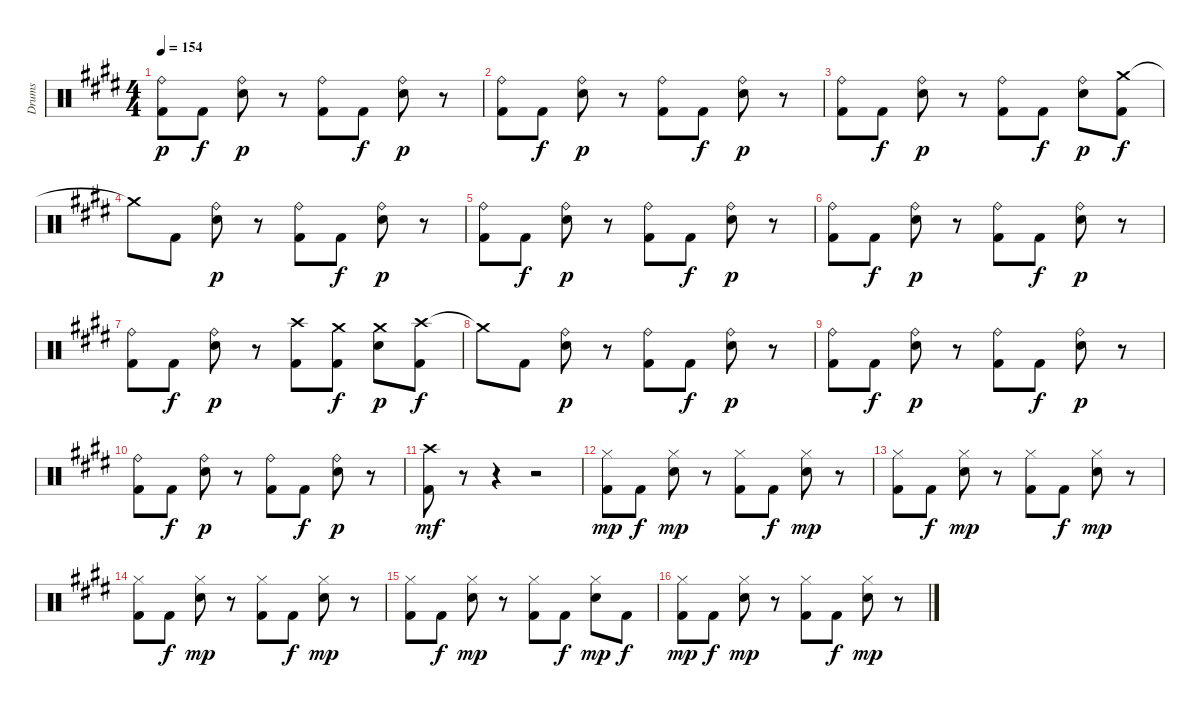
\track ("Drums" "Drums") {instrument percussion}
\staff {score}
\articulation defaults
\ts (4 4)
\tempo 154
\clef neutral
\ks e
("Ride (bell)" "Kick (hit) 2").8{dy p} "Kick (hit) 2".8{dy f} ("Ride (bell)" "Electric Snare (hit)").8{dy p} r.8 ("Ride (bell)" "Kick (hit) 2").8 "Kick (hit) 2".8{dy f} ("Ride (bell)" "Electric Snare (hit)").8{dy p} r.8 |
("Ride (bell)" "Kick (hit) 2").8 "Kick (hit) 2".8{dy f} ("Ride (bell)" "Electric Snare (hit)").8{dy p} r.8 ("Ride (bell)" "Kick (hit) 2").8 "Kick (hit) 2".8{dy f} ("Ride (bell)" "Electric Snare (hit)").8{dy p} r.8 |
("Ride (bell)" "Kick (hit) 2").8 "Kick (hit) 2".8{dy f} ("Ride (bell)" "Electric Snare (hit)").8{dy p} r.8 ("Ride (bell)" "Kick (hit) 2").8 "Kick (hit) 2".8{dy f} ("Ride (bell)" "Electric Snare (hit)").8{dy p} ("Crash medium (hit)" "Kick (hit) 2").8{dy f} |
"Crash medium (hit)"{t}.8 "Kick (hit) 2".8 ("Ride (bell)" "Electric Snare (hit)").8{dy p} r.8 ("Ride (bell)" "Kick (hit) 2").8 "Kick (hit) 2".8{dy f} ("Ride (bell)" "Electric Snare (hit)").8{dy p} r.8 |
("Ride (bell)" "Kick (hit) 2").8 "Kick (hit) 2".8{dy f} ("Ride (bell)" "Electric Snare (hit)").8{dy p} r.8 ("Ride (bell)" "Kick (hit) 2").8 "Kick (hit) 2".8{dy f} ("Ride (bell)" "Electric Snare (hit)").8{dy p} r.8 |
("Ride (bell)" "Kick (hit) 2").8 "Kick (hit) 2".8{dy f} ("Ride (bell)" "Electric Snare (hit)").8{dy p} r.8 ("Ride (bell)" "Kick (hit) 2").8 "Kick (hit) 2".8{dy f} ("Ride (bell)" "Electric Snare (hit)").8{dy p} r.8 |
("Ride (bell)" "Kick (hit) 2").8 "Kick (hit) 2".8{dy f} ("Ride (bell)" "Electric Snare (hit)").8{dy p} r.8 ("Crash high (hit)" "Kick (hit) 2").8 ("Crash medium (hit)" "Kick (hit) 2").8{dy f} ("Crash medium (hit)" "Electric Snare (hit)").8{dy p} ("Crash high (hit)" "Kick (hit) 2").8{dy f} |
"Crash medium (hit)"{t}.8 "Kick (hit) 2".8 ("Ride (bell)" "Electric Snare (hit)").8{dy p} r.8 ("Ride (bell)" "Kick (hit) 2").8 "Kick (hit) 2".8{dy f} ("Ride (bell)" "Electric Snare (hit)").8{dy p} r.8 |
("Ride (bell)" "Kick (hit) 2").8 "Kick (hit) 2".8{dy f} ("Ride (bell)" "Electric Snare (hit)").8{dy p} r.8 ("Ride (bell)" "Kick (hit) 2").8 "Kick (hit) 2".8{dy f} ("Ride (bell)" "Electric Snare (hit)").8{dy p} r.8 |
("Ride (bell)" "Kick (hit) 2").8 "Kick (hit) 2".8{dy f} ("Ride (bell)" "Electric Snare (hit)").8{dy p} r.8 ("Ride (bell)" "Kick (hit) 2").8 "Kick (hit) 2".8{dy f} ("Ride (bell)" "Electric Snare (hit)").8{dy p} r.8 |
("Crash high (hit)" "Kick (hit) 2").8{dy mf} r.8 r.4 r.2 |
("Hi-Hat (closed)" "Kick (hit) 2").8{dy mp} "Kick (hit) 2".8{dy f} ("Hi-Hat (closed)" "Electric Snare (hit)").8{dy mp} r.8 ("Hi-Hat (closed)" "Kick (hit) 2").8 "Kick (hit) 2".8{dy f} ("Hi-Hat (closed)" "Electric Snare (hit)").8{dy mp} r.8 |
("Hi-Hat (closed)" "Kick (hit) 2").8 "Kick (hit) 2".8{dy f} ("Hi-Hat (closed)" "Electric Snare (hit)").8{dy mp} r.8 ("Hi-Hat (closed)" "Kick (hit) 2").8 "Kick (hit) 2".8{dy f} ("Hi-Hat (closed)" "Electric Snare (hit)").8{dy mp} r.8 |
("Hi-Hat (closed)" "Kick (hit) 2").8 "Kick (hit) 2".8{dy f} ("Hi-Hat (closed)" "Electric Snare (hit)").8{dy mp} r.8 ("Hi-Hat (closed)" "Kick (hit) 2").8 "Kick (hit) 2".8{dy f} ("Hi-Hat (closed)" "Electric Snare (hit)").8{dy mp} r.8 |
("Hi-Hat (closed)" "Kick (hit) 2").8 "Kick (hit) 2".8{dy f} ("Hi-Hat (closed)" "Electric Snare (hit)").8{dy mp} r.8 ("Hi-Hat (closed)" "Kick (hit) 2").8 "Kick (hit) 2".8{dy f} ("Hi-Hat (closed)" "Electric Snare (hit)").8{dy mp} "Kick (hit) 2".8{dy f} |
("Hi-Hat (closed)" "Kick (hit) 2").8{dy mp} "Kick (hit) 2".8{dy f} ("Hi-Hat (closed)" "Electric Snare (hit)").8{dy mp} r.8 ("Hi-Hat (closed)" "Kick (hit) 2").8 "Kick (hit) 2".8{dy f} ("Hi-Hat (closed)" "Electric Snare (hit)").8{dy mp} r.8
